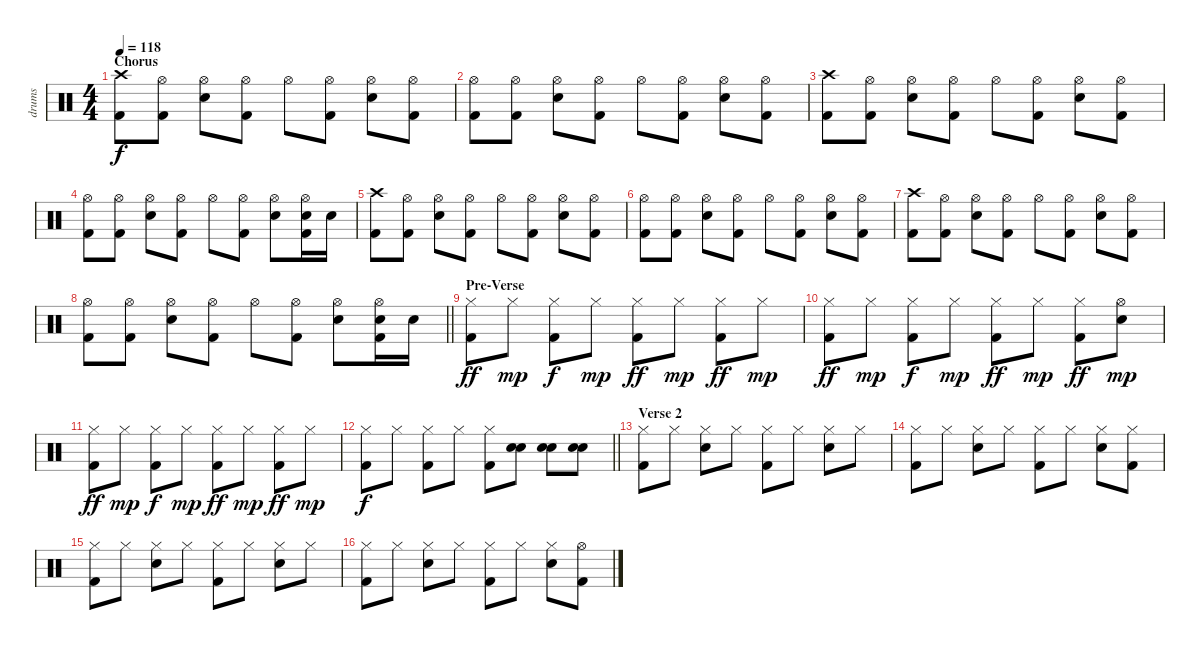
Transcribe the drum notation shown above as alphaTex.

\track ("drums" "drums") {instrument percussion}
\staff {score}
\articulation defaults
\ts (4 4)
\section ("" "Chorus")
\tempo 118
\clef neutral
\ks c
("Crash high (hit)" "Kick (hit) 2").8{dy f} ("Hi-Hat (open)" "Kick (hit) 2").8 ("Hi-Hat (open)" "Electric Snare (hit)").8 ("Hi-Hat (open)" "Kick (hit) 2").8 "Hi-Hat (open)".8 ("Hi-Hat (open)" "Kick (hit) 2").8 ("Hi-Hat (open)" "Electric Snare (hit)").8 ("Hi-Hat (open)" "Kick (hit) 2").8 |
("Hi-Hat (open)" "Kick (hit) 2").8 ("Hi-Hat (open)" "Kick (hit) 2").8 ("Hi-Hat (open)" "Electric Snare (hit)").8 ("Hi-Hat (open)" "Kick (hit) 2").8 "Hi-Hat (open)".8 ("Hi-Hat (open)" "Kick (hit) 2").8 ("Hi-Hat (open)" "Electric Snare (hit)").8 ("Hi-Hat (open)" "Kick (hit) 2").8 |
("Crash high (hit)" "Kick (hit) 2").8 ("Hi-Hat (open)" "Kick (hit) 2").8 ("Hi-Hat (open)" "Electric Snare (hit)").8 ("Hi-Hat (open)" "Kick (hit) 2").8 "Hi-Hat (open)".8 ("Hi-Hat (open)" "Kick (hit) 2").8 ("Hi-Hat (open)" "Electric Snare (hit)").8 ("Hi-Hat (open)" "Kick (hit) 2").8 |
("Hi-Hat (open)" "Kick (hit) 2").8 ("Hi-Hat (open)" "Kick (hit) 2").8 ("Hi-Hat (open)" "Electric Snare (hit)").8 ("Hi-Hat (open)" "Kick (hit) 2").8 "Hi-Hat (open)".8 ("Hi-Hat (open)" "Kick (hit) 2").8 ("Hi-Hat (open)" "Electric Snare (hit)").8 ("Hi-Hat (open)" "Electric Snare (hit)" "Kick (hit) 2").16 "Electric Snare (hit)".16 |
("Crash high (hit)" "Kick (hit) 2").8 ("Hi-Hat (open)" "Kick (hit) 2").8 ("Hi-Hat (open)" "Electric Snare (hit)").8 ("Hi-Hat (open)" "Kick (hit) 2").8 "Hi-Hat (open)".8 ("Hi-Hat (open)" "Kick (hit) 2").8 ("Hi-Hat (open)" "Electric Snare (hit)").8 ("Hi-Hat (open)" "Kick (hit) 2").8 |
("Hi-Hat (open)" "Kick (hit) 2").8 ("Hi-Hat (open)" "Kick (hit) 2").8 ("Hi-Hat (open)" "Electric Snare (hit)").8 ("Hi-Hat (open)" "Kick (hit) 2").8 "Hi-Hat (open)".8 ("Hi-Hat (open)" "Kick (hit) 2").8 ("Hi-Hat (open)" "Electric Snare (hit)").8 ("Hi-Hat (open)" "Kick (hit) 2").8 |
("Crash high (hit)" "Kick (hit) 2").8 ("Hi-Hat (open)" "Kick (hit) 2").8 ("Hi-Hat (open)" "Electric Snare (hit)").8 ("Hi-Hat (open)" "Kick (hit) 2").8 "Hi-Hat (open)".8 ("Hi-Hat (open)" "Kick (hit) 2").8 ("Hi-Hat (open)" "Electric Snare (hit)").8 ("Hi-Hat (open)" "Kick (hit) 2").8 |
\barLineRight lightlight
("Hi-Hat (open)" "Kick (hit) 2").8 ("Hi-Hat (open)" "Kick (hit) 2").8 ("Hi-Hat (open)" "Electric Snare (hit)").8 ("Hi-Hat (open)" "Kick (hit) 2").8 "Hi-Hat (open)".8 ("Hi-Hat (open)" "Kick (hit) 2").8 ("Hi-Hat (open)" "Electric Snare (hit)").8 ("Hi-Hat (open)" "Electric Snare (hit)" "Kick (hit) 2").16 "Electric Snare (hit)".16 |
\section ("" "Pre-Verse")
("Hi-Hat (closed)" "Kick (hit) 2").8{dy ff} "Hi-Hat (closed)".8{dy mp} ("Hi-Hat (closed)" "Kick (hit) 2").8{dy f} "Hi-Hat (closed)".8{dy mp} ("Hi-Hat (closed)" "Kick (hit) 2").8{dy ff} "Hi-Hat (closed)".8{dy mp} ("Hi-Hat (closed)" "Kick (hit) 2").8{dy ff} "Hi-Hat (closed)".8{dy mp} |
("Hi-Hat (closed)" "Kick (hit) 2").8{dy ff} "Hi-Hat (closed)".8{dy mp} ("Hi-Hat (closed)" "Kick (hit) 2").8{dy f} "Hi-Hat (closed)".8{dy mp} ("Hi-Hat (closed)" "Kick (hit) 2").8{dy ff} "Hi-Hat (closed)".8{dy mp} ("Hi-Hat (closed)" "Kick (hit) 2").8{dy ff} ("Hi-Hat (open)" "Electric Snare (hit)").8{dy mp} |
("Hi-Hat (closed)" "Kick (hit) 2").8{dy ff} "Hi-Hat (closed)".8{dy mp} ("Hi-Hat (closed)" "Kick (hit) 2").8{dy f} "Hi-Hat (closed)".8{dy mp} ("Hi-Hat (closed)" "Kick (hit) 2").8{dy ff} "Hi-Hat (closed)".8{dy mp} ("Hi-Hat (closed)" "Kick (hit) 2").8{dy ff} "Hi-Hat (closed)".8{dy mp} |
\barLineRight lightlight
("Hi-Hat (closed)" "Kick (hit) 2").8{dy f} "Hi-Hat (closed)".8 ("Hi-Hat (closed)" "Kick (hit) 2").8 "Hi-Hat (closed)".8 ("Hi-Hat (closed)" "Kick (hit) 2").8 ("Hand Clap (hit)" "Electric Snare (hit)").8 ("Hand Clap (hit)" "Electric Snare (hit)").8 ("Hand Clap (hit)" "Electric Snare (hit)").8 |
\section ("" "Verse 2")
("Hi-Hat (closed)" "Kick (hit) 2").8 "Hi-Hat (closed)".8 ("Hi-Hat (closed)" "Electric Snare (hit)").8 "Hi-Hat (closed)".8 ("Hi-Hat (closed)" "Kick (hit) 2").8 "Hi-Hat (closed)".8 ("Hi-Hat (closed)" "Electric Snare (hit)").8 "Hi-Hat (closed)".8 |
("Hi-Hat (closed)" "Kick (hit) 2").8 "Hi-Hat (closed)".8 ("Hi-Hat (closed)" "Electric Snare (hit)").8 "Hi-Hat (closed)".8 ("Hi-Hat (closed)" "Kick (hit) 2").8 "Hi-Hat (closed)".8 ("Hi-Hat (closed)" "Electric Snare (hit)").8 ("Hi-Hat (closed)" "Kick (hit) 2").8 |
("Hi-Hat (closed)" "Kick (hit) 2").8 "Hi-Hat (closed)".8 ("Hi-Hat (closed)" "Electric Snare (hit)").8 "Hi-Hat (closed)".8 ("Hi-Hat (closed)" "Kick (hit) 2").8 "Hi-Hat (closed)".8 ("Hi-Hat (closed)" "Electric Snare (hit)").8 "Hi-Hat (closed)".8 |
("Hi-Hat (closed)" "Kick (hit) 2").8 "Hi-Hat (closed)".8 ("Hi-Hat (closed)" "Electric Snare (hit)").8 "Hi-Hat (closed)".8 ("Hi-Hat (closed)" "Kick (hit) 2").8 "Hi-Hat (closed)".8 ("Hi-Hat (closed)" "Electric Snare (hit)").8 ("Hi-Hat (open)" "Kick (hit) 2").8
